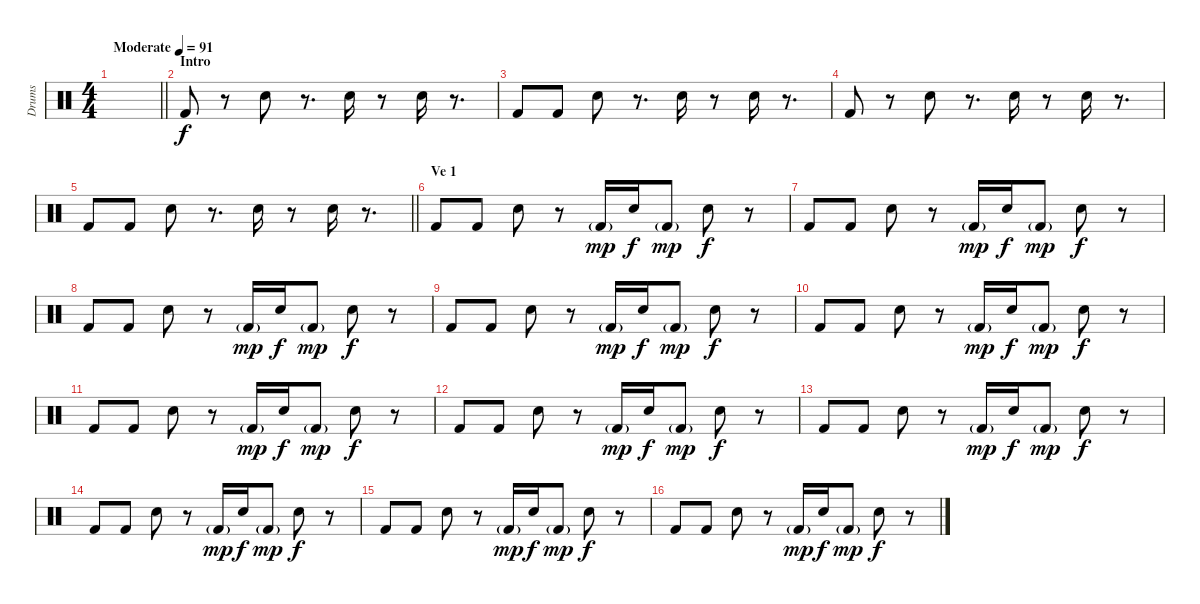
\track ("Drums" "Drums") {instrument percussion}
\staff {score}
\articulation defaults
\ts (4 4)
\tempo (91 "Moderate")
\clef neutral
\barLineRight lightlight
\ks c
|
\section ("" "Intro")
"Kick (hit) 2".8{volume 12} r.8 "Electric Snare (hit)".8 r.8{d} "Electric Snare (hit)".16 r.8 "Electric Snare (hit)".16 r.8{d} |
"Kick (hit) 2".8 "Kick (hit) 2".8 "Electric Snare (hit)".8 r.8{d} "Electric Snare (hit)".16 r.8 "Electric Snare (hit)".16 r.8{d} |
"Kick (hit) 2".8 r.8 "Electric Snare (hit)".8 r.8{d} "Electric Snare (hit)".16 r.8 "Electric Snare (hit)".16 r.8{d} |
\barLineRight lightlight "Kick (hit) 2".8 "Kick (hit) 2".8 "Electric Snare (hit)".8
r.8{d} "Electric Snare (hit)".16 r.8 "Electric Snare (hit)".16 r.8{d} |
\section ("" "Ve 1")
"Kick (hit) 2".8 "Kick (hit) 2".8 "Electric Snare (hit)".8 r.8 "Kick (hit) 2"{g}.16{dy mp} "Electric Snare (hit)".16{dy f} "Kick (hit) 2"{g}.8{dy mp} "Electric Snare (hit)".8{dy f} r.8 |
"Kick (hit) 2".8 "Kick (hit) 2".8 "Electric Snare (hit)".8 r.8 "Kick (hit) 2"{g}.16{dy mp} "Electric Snare (hit)".16{dy f} "Kick (hit) 2"{g}.8{dy mp} "Electric Snare (hit)".8{dy f} r.8 |
"Kick (hit) 2".8 "Kick (hit) 2".8 "Electric Snare (hit)".8 r.8 "Kick (hit) 2"{g}.16{dy mp} "Electric Snare (hit)".16{dy f} "Kick (hit) 2"{g}.8{dy mp} "Electric Snare (hit)".8{dy f} r.8 |
"Kick (hit) 2".8 "Kick (hit) 2".8 "Electric Snare (hit)".8 r.8 "Kick (hit) 2"{g}.16{dy mp} "Electric Snare (hit)".16{dy f} "Kick (hit) 2"{g}.8{dy mp} "Electric Snare (hit)".8{dy f} r.8 |
"Kick (hit) 2".8 "Kick (hit) 2".8 "Electric Snare (hit)".8 r.8 "Kick (hit) 2"{g}.16{dy mp} "Electric Snare (hit)".16{dy f} "Kick (hit) 2"{g}.8{dy mp} "Electric Snare (hit)".8{dy f} r.8 |
"Kick (hit) 2".8 "Kick (hit) 2".8 "Electric Snare (hit)".8 r.8 "Kick (hit) 2"{g}.16{dy mp} "Electric Snare (hit)".16{dy f} "Kick (hit) 2"{g}.8{dy mp} "Electric Snare (hit)".8{dy f} r.8 |
"Kick (hit) 2".8 "Kick (hit) 2".8 "Electric Snare (hit)".8 r.8 "Kick (hit) 2"{g}.16{dy mp} "Electric Snare (hit)".16{dy f} "Kick (hit) 2"{g}.8{dy mp} "Electric Snare (hit)".8{dy f} r.8 |
"Kick (hit) 2".8 "Kick (hit) 2".8 "Electric Snare (hit)".8 r.8 "Kick (hit) 2"{g}.16{dy mp} "Electric Snare (hit)".16{dy f} "Kick (hit) 2"{g}.8{dy mp} "Electric Snare (hit)".8{dy f} r.8 |
"Kick (hit) 2".8 "Kick (hit) 2".8 "Electric Snare (hit)".8 r.8 "Kick (hit) 2"{g}.16{dy mp} "Electric Snare (hit)".16{dy f} "Kick (hit) 2"{g}.8{dy mp} "Electric Snare (hit)".8{dy f} r.8 |
"Kick (hit) 2".8 "Kick (hit) 2".8 "Electric Snare (hit)".8 r.8 "Kick (hit) 2"{g}.16{dy mp} "Electric Snare (hit)".16{dy f} "Kick (hit) 2"{g}.8{dy mp} "Electric Snare (hit)".8{dy f} r.8 |
"Kick (hit) 2".8 "Kick (hit) 2".8 "Electric Snare (hit)".8 r.8 "Kick (hit) 2"{g}.16{dy mp} "Electric Snare (hit)".16{dy f} "Kick (hit) 2"{g}.8{dy mp} "Electric Snare (hit)".8{dy f} r.8
